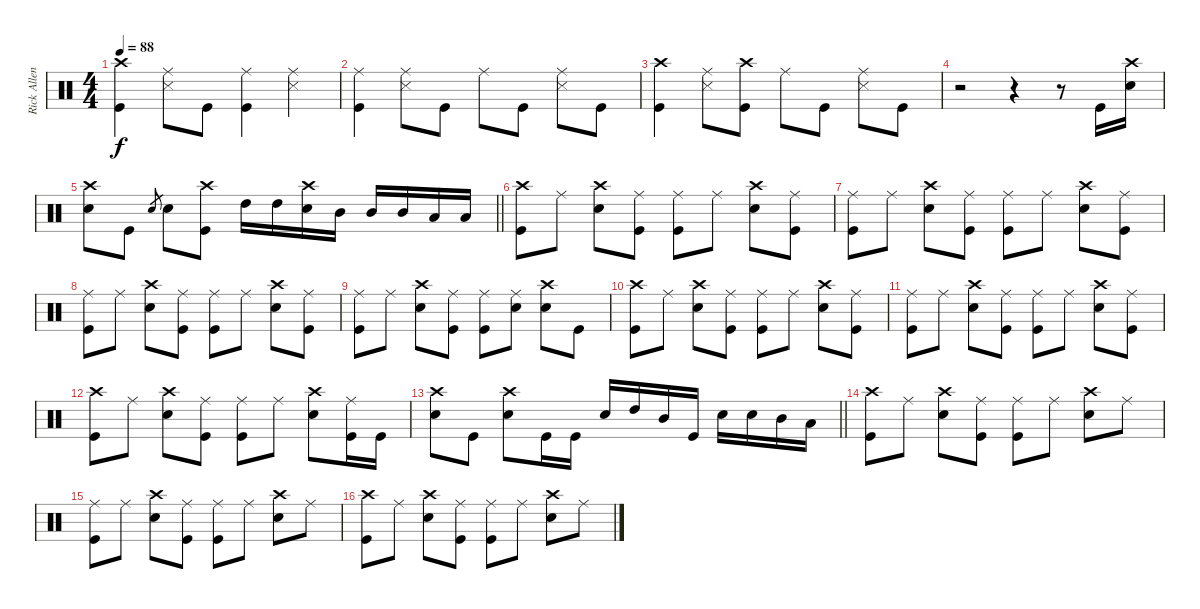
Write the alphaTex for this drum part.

\track ("Rick Allen" "Rick Allen") {instrument percussion}
\staff {score}
\articulation defaults
\ts (4 4)
\tempo 88
\clef neutral
\ks c
("Crash high (hit)" "Kick (hit)").4{dy f} ("Ride (middle)" "Metronome (hit)").8 "Kick (hit)".8 ("Ride (middle)" "Kick (hit)").4 ("Ride (middle)" "Metronome (hit)").4 |
("Ride (middle)" "Kick (hit)").4 ("Ride (middle)" "Metronome (hit)").8 "Kick (hit)".8 "Ride (middle)".8 "Kick (hit)".8 ("Ride (middle)" "Metronome (hit)").8 "Kick (hit)".8 |
("Crash high (hit)" "Kick (hit)").4 ("Ride (middle)" "Metronome (hit)").8 ("Crash high (hit)" "Kick (hit)").8 "Ride (middle)".8 "Kick (hit)".8 ("Ride (middle)" "Metronome (hit)").8 "Kick (hit)".8 |
r.2 r.4 r.8 "Kick (hit)".16 ("Crash high (hit)" "Snare (hit) 2").16 |
\barLineRight lightlight
("Crash high (hit)" "Snare (hit) 2").8 "Kick (hit)".8 "Snare (hit) 2".8{gr} "Snare (hit) 2".8 ("Crash high (hit)" "Kick (hit)").8 "High Tom (hit)".16 "High Tom (hit)".16 ("Crash high (hit)" "Snare (hit) 2").16 "Mid Tom (hit)".16 "Mid Tom (hit)".16 "Mid Tom (hit)".16 "Low Tom (hit)".16 "Low Tom (hit)".16 |
("Crash high (hit)" "Kick (hit)").8 "Ride (middle)".8 ("Crash high (hit)" "Snare (hit) 2").8 ("Ride (middle)" "Kick (hit)").8 ("Ride (middle)" "Kick (hit)").8 "Ride (middle)".8 ("Crash high (hit)" "Snare (hit) 2").8 ("Ride (middle)" "Kick (hit)").8 |
("Ride (middle)" "Kick (hit)").8 "Ride (middle)".8 ("Crash high (hit)" "Snare (hit) 2").8 ("Ride (middle)" "Kick (hit)").8 ("Ride (middle)" "Kick (hit)").8 "Ride (middle)".8 ("Crash high (hit)" "Snare (hit) 2").8 ("Ride (middle)" "Kick (hit)").8 |
("Ride (middle)" "Kick (hit)").8 "Ride (middle)".8 ("Crash high (hit)" "Snare (hit) 2").8 ("Ride (middle)" "Kick (hit)").8 ("Ride (middle)" "Kick (hit)").8 "Ride (middle)".8 ("Crash high (hit)" "Snare (hit) 2").8 ("Ride (middle)" "Kick (hit)").8 |
("Ride (middle)" "Kick (hit)").8 "Ride (middle)".8 ("Crash high (hit)" "Snare (hit) 2").8 ("Ride (middle)" "Kick (hit)").8 ("Ride (middle)" "Kick (hit)").8 ("Ride (middle)" "Snare (hit) 2").8 ("Crash high (hit)" "Snare (hit) 2").8 "Kick (hit)".8 |
("Crash high (hit)" "Kick (hit)").8 "Ride (middle)".8 ("Crash high (hit)" "Snare (hit) 2").8 ("Ride (middle)" "Kick (hit)").8 ("Ride (middle)" "Kick (hit)").8 "Ride (middle)".8 ("Crash high (hit)" "Snare (hit) 2").8 ("Ride (middle)" "Kick (hit)").8 |
("Ride (middle)" "Kick (hit)").8 "Ride (middle)".8 ("Crash high (hit)" "Snare (hit) 2").8 ("Ride (middle)" "Kick (hit)").8 ("Ride (middle)" "Kick (hit)").8 "Ride (middle)".8 ("Crash high (hit)" "Snare (hit) 2").8 ("Ride (middle)" "Kick (hit)").8 |
("Crash high (hit)" "Kick (hit)").8 "Ride (middle)".8 ("Crash high (hit)" "Snare (hit) 2").8 ("Ride (middle)" "Kick (hit)").8 ("Ride (middle)" "Kick (hit)").8 "Ride (middle)".8 ("Crash high (hit)" "Snare (hit) 2").8 ("Ride (middle)" "Kick (hit)").16 "Kick (hit)".16 |
\barLineRight lightlight
("Crash high (hit)" "Snare (hit) 2").8 "Kick (hit)".8 ("Crash high (hit)" "Snare (hit) 2").8 "Kick (hit)".16 "Kick (hit)".16 "Snare (hit) 2".16 "High Tom (hit)".16 "Mid Tom (hit)".16 "Kick (hit)".16 "Snare (hit) 2".16 "Snare (hit) 2".16 "Mid Tom (hit)".16 "Low Tom (hit)".16 |
("Crash high (hit)" "Kick (hit)").8 "Ride (middle)".8 ("Crash high (hit)" "Snare (hit) 2").8 ("Ride (middle)" "Kick (hit)").8 ("Ride (middle)" "Kick (hit)").8 "Ride (middle)".8 ("Crash high (hit)" "Snare (hit) 2").8 "Ride (middle)".8 |
("Ride (middle)" "Kick (hit)").8 "Ride (middle)".8 ("Crash high (hit)" "Snare (hit) 2").8 ("Ride (middle)" "Kick (hit)").8 ("Ride (middle)" "Kick (hit)").8 "Ride (middle)".8 ("Crash high (hit)" "Snare (hit) 2").8 "Ride (middle)".8 |
("Crash high (hit)" "Kick (hit)").8 "Ride (middle)".8 ("Crash high (hit)" "Snare (hit) 2").8 ("Ride (middle)" "Kick (hit)").8 ("Ride (middle)" "Kick (hit)").8 "Ride (middle)".8 ("Crash high (hit)" "Snare (hit) 2").8 "Ride (middle)".8
